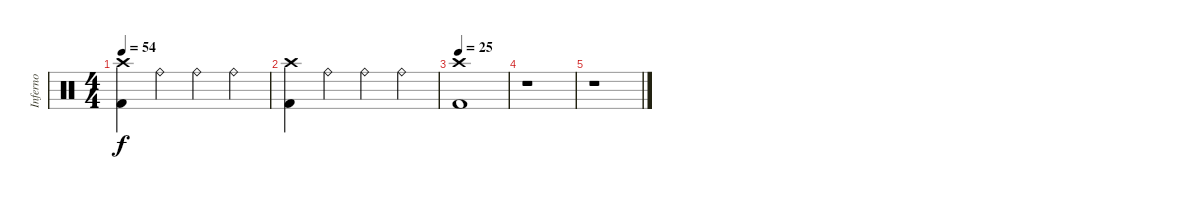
\track ("Inferno" "Inferno") {instrument percussion}
\staff {score}
\articulation defaults
\ts (4 4)
\tempo 54
\clef neutral
\ks c
("Crash high (hit)" "Kick (hit) 2").4{dy f} "Ride (bell)".4 "Ride (bell)".4 "Ride (bell)".4 |
("Crash high (hit)" "Kick (hit) 2").4 "Ride (bell)".4 "Ride (bell)".4 "Ride (bell)".4 |
\tempo 25
("Crash high (hit)" "Kick (hit) 2").1 |
r.1 |
r.1
